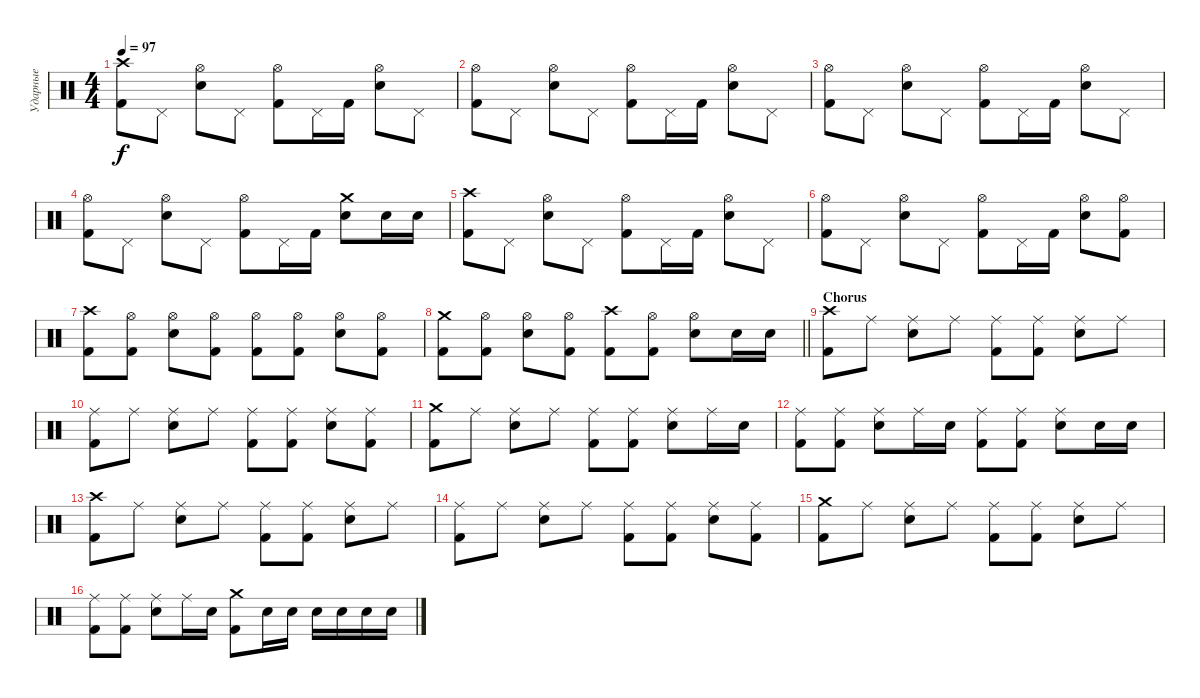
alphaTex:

\track ("Ударные" "Ударные") {instrument percussion}
\staff {score}
\articulation defaults
\ts (4 4)
\tempo 97
\clef neutral
\ks c
("Crash high (hit)" "Kick (hit) 2").8{dy f} "Pedal Hi-Hat (hit)".8 ("Hi-Hat (open)" "Electric Snare (hit)").8 "Pedal Hi-Hat (hit)".8 ("Hi-Hat (open)" "Kick (hit) 2").8 "Pedal Hi-Hat (hit)".16 "Kick (hit) 2".16 ("Hi-Hat (open)" "Electric Snare (hit)").8 "Pedal Hi-Hat (hit)".8 |
("Hi-Hat (open)" "Kick (hit) 2").8 "Pedal Hi-Hat (hit)".8 ("Hi-Hat (open)" "Electric Snare (hit)").8 "Pedal Hi-Hat (hit)".8 ("Hi-Hat (open)" "Kick (hit) 2").8 "Pedal Hi-Hat (hit)".16 "Kick (hit) 2".16 ("Hi-Hat (open)" "Electric Snare (hit)").8 "Pedal Hi-Hat (hit)".8 |
("Hi-Hat (open)" "Kick (hit) 2").8 "Pedal Hi-Hat (hit)".8 ("Hi-Hat (open)" "Electric Snare (hit)").8 "Pedal Hi-Hat (hit)".8 ("Hi-Hat (open)" "Kick (hit) 2").8 "Pedal Hi-Hat (hit)".16 "Kick (hit) 2".16 ("Hi-Hat (open)" "Electric Snare (hit)").8 "Pedal Hi-Hat (hit)".8 |
("Hi-Hat (open)" "Kick (hit) 2").8 "Pedal Hi-Hat (hit)".8 ("Hi-Hat (open)" "Electric Snare (hit)").8 "Pedal Hi-Hat (hit)".8 ("Hi-Hat (open)" "Kick (hit) 2").8 "Pedal Hi-Hat (hit)".16 "Kick (hit) 2".16 ("Crash medium (hit)" "Electric Snare (hit)").8 "Electric Snare (hit)".16 "Electric Snare (hit)".16 |
("Crash high (hit)" "Kick (hit) 2").8 "Pedal Hi-Hat (hit)".8 ("Hi-Hat (open)" "Electric Snare (hit)").8 "Pedal Hi-Hat (hit)".8 ("Hi-Hat (open)" "Kick (hit) 2").8 "Pedal Hi-Hat (hit)".16 "Kick (hit) 2".16 ("Hi-Hat (open)" "Electric Snare (hit)").8 "Pedal Hi-Hat (hit)".8 |
("Hi-Hat (open)" "Kick (hit) 2").8 "Pedal Hi-Hat (hit)".8 ("Hi-Hat (open)" "Electric Snare (hit)").8 "Pedal Hi-Hat (hit)".8 ("Hi-Hat (open)" "Kick (hit) 2").8 "Pedal Hi-Hat (hit)".16 "Kick (hit) 2".16 ("Hi-Hat (open)" "Electric Snare (hit)").8 ("Hi-Hat (open)" "Kick (hit) 2").8 |
("Crash high (hit)" "Kick (hit) 2").8 ("Hi-Hat (open)" "Kick (hit) 2").8 ("Hi-Hat (open)" "Electric Snare (hit)").8 ("Hi-Hat (open)" "Kick (hit) 2").8 ("Hi-Hat (open)" "Kick (hit) 2").8 ("Hi-Hat (open)" "Kick (hit) 2").8 ("Hi-Hat (open)" "Electric Snare (hit)").8 ("Hi-Hat (open)" "Kick (hit) 2").8 |
\barLineRight lightlight
("Crash medium (hit)" "Kick (hit) 2").8 ("Hi-Hat (open)" "Kick (hit) 2").8 ("Hi-Hat (open)" "Electric Snare (hit)").8 ("Hi-Hat (open)" "Kick (hit) 2").8 ("Crash high (hit)" "Kick (hit) 2").8 ("Hi-Hat (open)" "Kick (hit) 2").8 ("Hi-Hat (open)" "Electric Snare (hit)").8 "Electric Snare (hit)".16 "Electric Snare (hit)".16 |
\section ("" "Сhorus")
("Crash high (hit)" "Kick (hit) 2").8 "Ride (middle)".8 ("Ride (middle)" "Electric Snare (hit)").8 "Ride (middle)".8 ("Ride (middle)" "Kick (hit) 2").8 ("Ride (middle)" "Kick (hit) 2").8 ("Ride (middle)" "Electric Snare (hit)").8 "Ride (middle)".8 |
("Ride (middle)" "Kick (hit) 2").8 "Ride (middle)".8 ("Ride (middle)" "Electric Snare (hit)").8 "Ride (middle)".8 ("Ride (middle)" "Kick (hit) 2").8 ("Ride (middle)" "Kick (hit) 2").8 ("Ride (middle)" "Electric Snare (hit)").8 ("Ride (middle)" "Kick (hit) 2").8 |
("Crash medium (hit)" "Kick (hit) 2").8 "Ride (middle)".8 ("Ride (middle)" "Electric Snare (hit)").8 "Ride (middle)".8 ("Ride (middle)" "Kick (hit) 2").8 ("Ride (middle)" "Kick (hit) 2").8 ("Ride (middle)" "Electric Snare (hit)").8 "Ride (middle)".16 "Electric Snare (hit)".16 |
("Ride (middle)" "Kick (hit) 2").8 ("Ride (middle)" "Kick (hit) 2").8 ("Ride (middle)" "Electric Snare (hit)").8 "Ride (middle)".16 "Electric Snare (hit)".16 ("Ride (middle)" "Kick (hit) 2").8 ("Ride (middle)" "Kick (hit) 2").8 ("Ride (middle)" "Electric Snare (hit)").8 "Electric Snare (hit)".16 "Electric Snare (hit)".16 |
("Crash high (hit)" "Kick (hit) 2").8 "Ride (middle)".8 ("Ride (middle)" "Electric Snare (hit)").8 "Ride (middle)".8 ("Ride (middle)" "Kick (hit) 2").8 ("Ride (middle)" "Kick (hit) 2").8 ("Ride (middle)" "Electric Snare (hit)").8 "Ride (middle)".8 |
("Ride (middle)" "Kick (hit) 2").8 "Ride (middle)".8 ("Ride (middle)" "Electric Snare (hit)").8 "Ride (middle)".8 ("Ride (middle)" "Kick (hit) 2").8 ("Ride (middle)" "Kick (hit) 2").8 ("Ride (middle)" "Electric Snare (hit)").8 ("Ride (middle)" "Kick (hit) 2").8 |
("Crash medium (hit)" "Kick (hit) 2").8 "Ride (middle)".8 ("Ride (middle)" "Electric Snare (hit)").8 "Ride (middle)".8 ("Ride (middle)" "Kick (hit) 2").8 ("Ride (middle)" "Kick (hit) 2").8 ("Ride (middle)" "Electric Snare (hit)").8 "Ride (middle)".8 |
("Ride (middle)" "Kick (hit) 2").8 ("Ride (middle)" "Kick (hit) 2").8 ("Ride (middle)" "Electric Snare (hit)").8 "Ride (middle)".16 "Electric Snare (hit)".16 ("Crash medium (hit)" "Kick (hit) 2").8 "Electric Snare (hit)".16 "Electric Snare (hit)".16 "Electric Snare (hit)".16 "Electric Snare (hit)".16 "Electric Snare (hit)".16 "Electric Snare (hit)".16
